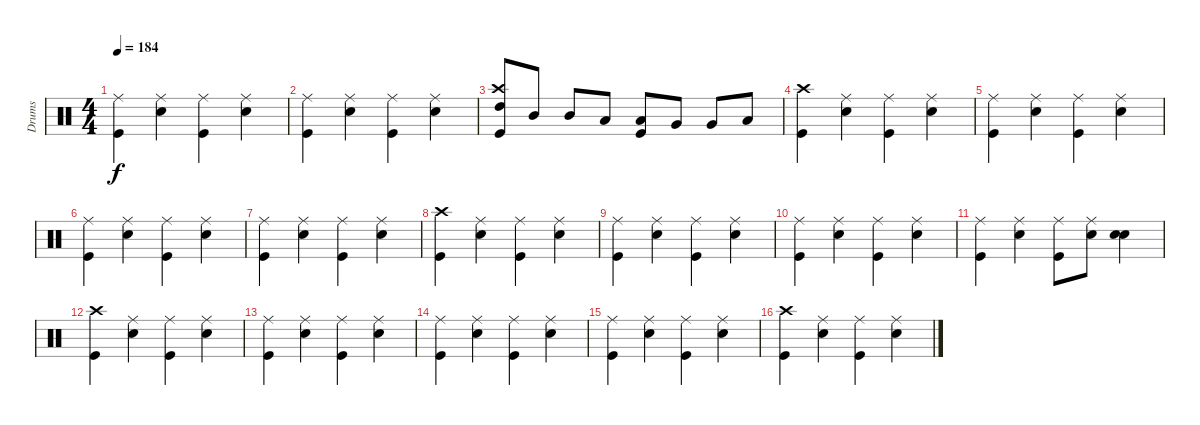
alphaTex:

\track ("Drums" "Drums") {instrument percussion}
\staff {score}
\articulation defaults
\ts (4 4)
\tempo 184
\clef neutral
\ks c
("Ride (middle)" "Kick (hit)").4{dy f} ("Ride (middle)" "Electric Snare (hit)").4 ("Ride (middle)" "Kick (hit)").4 ("Ride (middle)" "Electric Snare (hit)").4 |
("Ride (middle)" "Kick (hit)").4 ("Ride (middle)" "Electric Snare (hit)").4 ("Ride (middle)" "Kick (hit)").4 ("Ride (middle)" "Electric Snare (hit)").4 |
("Crash high (hit)" "High Tom (hit)" "Kick (hit)").8 "Mid Tom (hit)".8 "Mid Tom (hit)".8 "Low Tom (hit)".8 ("Low Tom (hit)" "Kick (hit)").8 "Very Low Tom (hit)".8 "Very Low Tom (hit)".8 "Low Floor Tom (hit)".8 |
("Crash high (hit)" "Kick (hit)").4 ("Ride (middle)" "Electric Snare (hit)").4 ("Ride (middle)" "Kick (hit)").4 ("Ride (middle)" "Electric Snare (hit)").4 |
("Ride (middle)" "Kick (hit)").4 ("Ride (middle)" "Electric Snare (hit)").4 ("Ride (middle)" "Kick (hit)").4 ("Ride (middle)" "Electric Snare (hit)").4 |
("Ride (middle)" "Kick (hit)").4 ("Ride (middle)" "Electric Snare (hit)").4 ("Ride (middle)" "Kick (hit)").4 ("Ride (middle)" "Electric Snare (hit)").4 |
("Ride (middle)" "Kick (hit)").4 ("Ride (middle)" "Electric Snare (hit)").4 ("Ride (middle)" "Kick (hit)").4 ("Ride (middle)" "Electric Snare (hit)").4 |
("Crash high (hit)" "Kick (hit)").4 ("Ride (middle)" "Electric Snare (hit)").4 ("Ride (middle)" "Kick (hit)").4 ("Ride (middle)" "Electric Snare (hit)").4 |
("Ride (middle)" "Kick (hit)").4 ("Ride (middle)" "Electric Snare (hit)").4 ("Ride (middle)" "Kick (hit)").4 ("Ride (middle)" "Electric Snare (hit)").4 |
("Ride (middle)" "Kick (hit)").4 ("Ride (middle)" "Electric Snare (hit)").4 ("Ride (middle)" "Kick (hit)").4 ("Ride (middle)" "Electric Snare (hit)").4 |
("Ride (middle)" "Kick (hit)").4 ("Ride (middle)" "Electric Snare (hit)").4 ("Ride (middle)" "Kick (hit)").8 ("Ride (middle)" "Electric Snare (hit)").8 ("Electric Snare (hit)" "Electric Snare (hit)").4 |
("Crash high (hit)" "Kick (hit)").4 ("Ride (middle)" "Electric Snare (hit)").4 ("Ride (middle)" "Kick (hit)").4 ("Ride (middle)" "Electric Snare (hit)").4 |
("Ride (middle)" "Kick (hit)").4 ("Ride (middle)" "Electric Snare (hit)").4 ("Ride (middle)" "Kick (hit)").4 ("Ride (middle)" "Electric Snare (hit)").4 |
("Ride (middle)" "Kick (hit)").4 ("Ride (middle)" "Electric Snare (hit)").4 ("Ride (middle)" "Kick (hit)").4 ("Ride (middle)" "Electric Snare (hit)").4 |
("Ride (middle)" "Kick (hit)").4 ("Ride (middle)" "Electric Snare (hit)").4 ("Ride (middle)" "Kick (hit)").4 ("Ride (middle)" "Electric Snare (hit)").4 |
("Crash high (hit)" "Kick (hit)").4 ("Ride (middle)" "Electric Snare (hit)").4 ("Ride (middle)" "Kick (hit)").4 ("Ride (middle)" "Electric Snare (hit)").4
